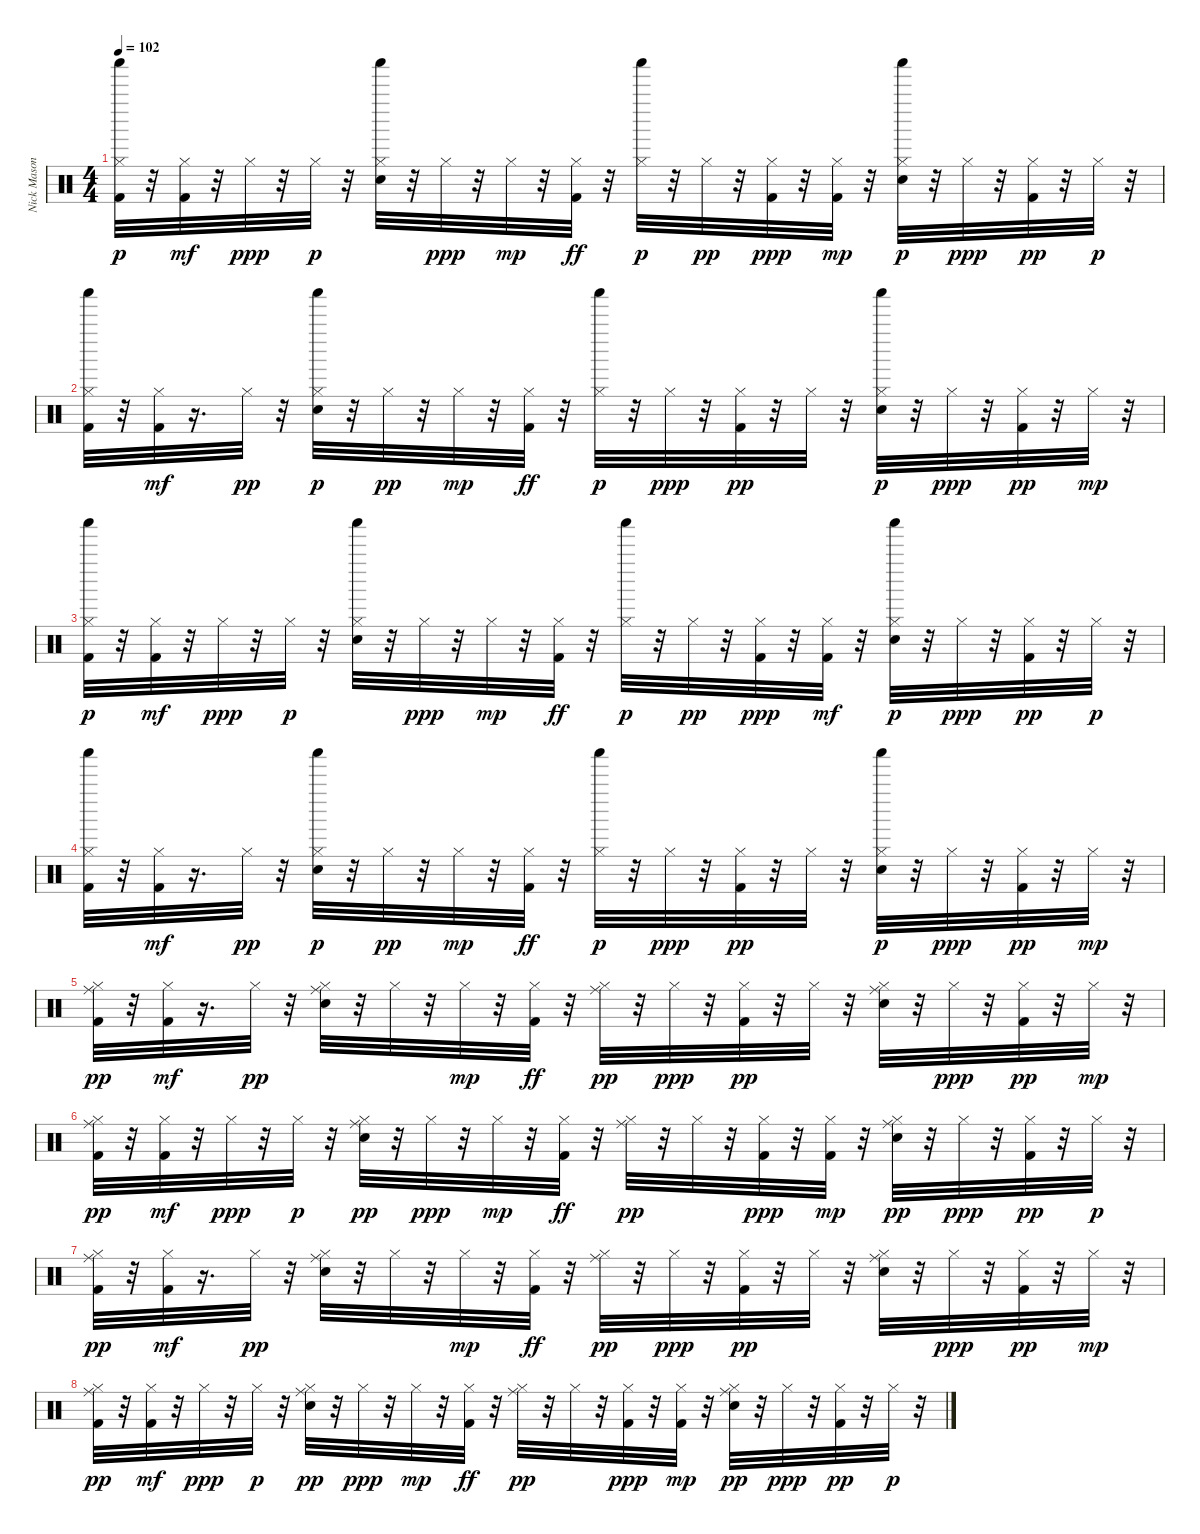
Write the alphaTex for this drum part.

\track ("Nick Mason / Gary Wallis" "Nick Mason") {instrument percussion}
\staff {score}
\articulation defaults
\ts (4 4)
\tempo 102
\clef neutral
\ks c
("Kick (hit) 2" "Hi-Hat (closed)" "Shaker (hit)").32{dy p} r.32 ("Hi-Hat (closed)" "Kick (hit) 2").32{dy mf} r.32 "Hi-Hat (closed)".32{dy ppp} r.32 "Hi-Hat (closed)".32{dy p} r.32 ("Snare (hit) 2" "Hi-Hat (closed)" "Shaker (hit)").32 r.32 "Hi-Hat (closed)".32{dy ppp} r.32 "Hi-Hat (closed)".32{dy mp} r.32 ("Hi-Hat (closed)" "Kick (hit) 2").32{dy ff} r.32 ("Hi-Hat (closed)" "Shaker (hit)").32{dy p} r.32 "Hi-Hat (closed)".32{dy pp} r.32 ("Hi-Hat (closed)" "Kick (hit) 2").32{dy ppp} r.32 ("Hi-Hat (closed)" "Kick (hit) 2").32{dy mp} r.32 ("Snare (hit) 2" "Hi-Hat (closed)" "Shaker (hit)").32{dy p} r.32 "Hi-Hat (closed)".32{dy ppp} r.32 ("Kick (hit) 2" "Hi-Hat (closed)").32{dy pp} r.32 "Hi-Hat (closed)".32{dy p} r.32 |
("Kick (hit) 2" "Hi-Hat (closed)" "Shaker (hit)").32 r.32 ("Hi-Hat (closed)" "Kick (hit) 2").32{dy mf} r.16{d} "Hi-Hat (closed)".32{dy pp} r.32 ("Snare (hit) 2" "Hi-Hat (closed)" "Shaker (hit)").32{dy p} r.32 "Hi-Hat (closed)".32{dy pp} r.32 "Hi-Hat (closed)".32{dy mp} r.32 ("Hi-Hat (closed)" "Kick (hit) 2").32{dy ff} r.32 ("Hi-Hat (closed)" "Shaker (hit)").32{dy p} r.32 "Hi-Hat (closed)".32{dy ppp} r.32 ("Hi-Hat (closed)" "Kick (hit) 2").32{dy pp} r.32 "Hi-Hat (closed)".32 r.32 ("Snare (hit) 2" "Hi-Hat (closed)" "Shaker (hit)").32{dy p} r.32 "Hi-Hat (closed)".32{dy ppp} r.32 ("Kick (hit) 2" "Hi-Hat (closed)").32{dy pp} r.32 "Hi-Hat (closed)".32{dy mp} r.32 |
("Kick (hit) 2" "Hi-Hat (closed)" "Shaker (hit)").32{dy p} r.32 ("Hi-Hat (closed)" "Kick (hit) 2").32{dy mf} r.32 "Hi-Hat (closed)".32{dy ppp} r.32 "Hi-Hat (closed)".32{dy p} r.32 ("Snare (hit) 2" "Hi-Hat (closed)" "Shaker (hit)").32 r.32 "Hi-Hat (closed)".32{dy ppp} r.32 "Hi-Hat (closed)".32{dy mp} r.32 ("Hi-Hat (closed)" "Kick (hit) 2").32{dy ff} r.32 ("Hi-Hat (closed)" "Shaker (hit)").32{dy p} r.32 "Hi-Hat (closed)".32{dy pp} r.32 ("Hi-Hat (closed)" "Kick (hit) 2").32{dy ppp} r.32 ("Hi-Hat (closed)" "Kick (hit) 2").32{dy mf} r.32 ("Snare (hit) 2" "Hi-Hat (closed)" "Shaker (hit)").32{dy p} r.32 "Hi-Hat (closed)".32{dy ppp} r.32 ("Kick (hit) 2" "Hi-Hat (closed)").32{dy pp} r.32 "Hi-Hat (closed)".32{dy p} r.32 |
("Kick (hit) 2" "Hi-Hat (closed)" "Shaker (hit)").32 r.32 ("Hi-Hat (closed)" "Kick (hit) 2").32{dy mf} r.16{d} "Hi-Hat (closed)".32{dy pp} r.32 ("Snare (hit) 2" "Hi-Hat (closed)" "Shaker (hit)").32{dy p} r.32 "Hi-Hat (closed)".32{dy pp} r.32 "Hi-Hat (closed)".32{dy mp} r.32 ("Hi-Hat (closed)" "Kick (hit) 2").32{dy ff} r.32 ("Hi-Hat (closed)" "Shaker (hit)").32{dy p} r.32 "Hi-Hat (closed)".32{dy ppp} r.32 ("Hi-Hat (closed)" "Kick (hit) 2").32{dy pp} r.32 "Hi-Hat (closed)".32 r.32 ("Snare (hit) 2" "Hi-Hat (closed)" "Shaker (hit)").32{dy p} r.32 "Hi-Hat (closed)".32{dy ppp} r.32 ("Kick (hit) 2" "Hi-Hat (closed)").32{dy pp} r.32 "Hi-Hat (closed)".32{dy mp} r.32 |
("Kick (hit) 2" "Hi-Hat (closed)" "Ride (middle)").32{dy pp} r.32 ("Hi-Hat (closed)" "Kick (hit) 2").32{dy mf} r.16{d} "Hi-Hat (closed)".32{dy pp} r.32 ("Snare (hit) 2" "Hi-Hat (closed)" "Ride (middle)").32 r.32 "Hi-Hat (closed)".32 r.32 "Hi-Hat (closed)".32{dy mp} r.32 ("Hi-Hat (closed)" "Kick (hit) 2").32{dy ff} r.32 ("Hi-Hat (closed)" "Ride (middle)").32{dy pp} r.32 "Hi-Hat (closed)".32{dy ppp} r.32 ("Hi-Hat (closed)" "Kick (hit) 2").32{dy pp} r.32 "Hi-Hat (closed)".32 r.32 ("Snare (hit) 2" "Hi-Hat (closed)" "Ride (middle)").32 r.32 "Hi-Hat (closed)".32{dy ppp} r.32 ("Kick (hit) 2" "Hi-Hat (closed)").32{dy pp} r.32 "Hi-Hat (closed)".32{dy mp} r.32 |
("Kick (hit) 2" "Hi-Hat (closed)" "Ride (middle)").32{dy pp} r.32 ("Hi-Hat (closed)" "Kick (hit) 2").32{dy mf} r.32 "Hi-Hat (closed)".32{dy ppp} r.32 "Hi-Hat (closed)".32{dy p} r.32 ("Snare (hit) 2" "Hi-Hat (closed)" "Ride (middle)").32{dy pp} r.32 "Hi-Hat (closed)".32{dy ppp} r.32 "Hi-Hat (closed)".32{dy mp} r.32 ("Hi-Hat (closed)" "Kick (hit) 2").32{dy ff} r.32 ("Hi-Hat (closed)" "Ride (middle)").32{dy pp} r.32 "Hi-Hat (closed)".32 r.32 ("Hi-Hat (closed)" "Kick (hit) 2").32{dy ppp} r.32 ("Hi-Hat (closed)" "Kick (hit) 2").32{dy mp} r.32 ("Snare (hit) 2" "Hi-Hat (closed)" "Ride (middle)").32{dy pp} r.32 "Hi-Hat (closed)".32{dy ppp} r.32 ("Kick (hit) 2" "Hi-Hat (closed)").32{dy pp} r.32 "Hi-Hat (closed)".32{dy p} r.32 |
("Kick (hit) 2" "Hi-Hat (closed)" "Ride (middle)").32{dy pp} r.32 ("Hi-Hat (closed)" "Kick (hit) 2").32{dy mf} r.16{d} "Hi-Hat (closed)".32{dy pp} r.32 ("Snare (hit) 2" "Hi-Hat (closed)" "Ride (middle)").32 r.32 "Hi-Hat (closed)".32 r.32 "Hi-Hat (closed)".32{dy mp} r.32 ("Hi-Hat (closed)" "Kick (hit) 2").32{dy ff} r.32 ("Hi-Hat (closed)" "Ride (middle)").32{dy pp} r.32 "Hi-Hat (closed)".32{dy ppp} r.32 ("Hi-Hat (closed)" "Kick (hit) 2").32{dy pp} r.32 "Hi-Hat (closed)".32 r.32 ("Snare (hit) 2" "Hi-Hat (closed)" "Ride (middle)").32 r.32 "Hi-Hat (closed)".32{dy ppp} r.32 ("Kick (hit) 2" "Hi-Hat (closed)").32{dy pp} r.32 "Hi-Hat (closed)".32{dy mp} r.32 |
("Kick (hit) 2" "Hi-Hat (closed)" "Ride (middle)").32{dy pp} r.32 ("Hi-Hat (closed)" "Kick (hit) 2").32{dy mf} r.32 "Hi-Hat (closed)".32{dy ppp} r.32 "Hi-Hat (closed)".32{dy p} r.32 ("Snare (hit) 2" "Hi-Hat (closed)" "Ride (middle)").32{dy pp} r.32 "Hi-Hat (closed)".32{dy ppp} r.32 "Hi-Hat (closed)".32{dy mp} r.32 ("Hi-Hat (closed)" "Kick (hit) 2").32{dy ff} r.32 ("Hi-Hat (closed)" "Ride (middle)").32{dy pp} r.32 "Hi-Hat (closed)".32 r.32 ("Hi-Hat (closed)" "Kick (hit) 2").32{dy ppp} r.32 ("Hi-Hat (closed)" "Kick (hit) 2").32{dy mp} r.32 ("Snare (hit) 2" "Hi-Hat (closed)" "Ride (middle)").32{dy pp} r.32 "Hi-Hat (closed)".32{dy ppp} r.32 ("Kick (hit) 2" "Hi-Hat (closed)").32{dy pp} r.32 "Hi-Hat (closed)".32{dy p} r.32
